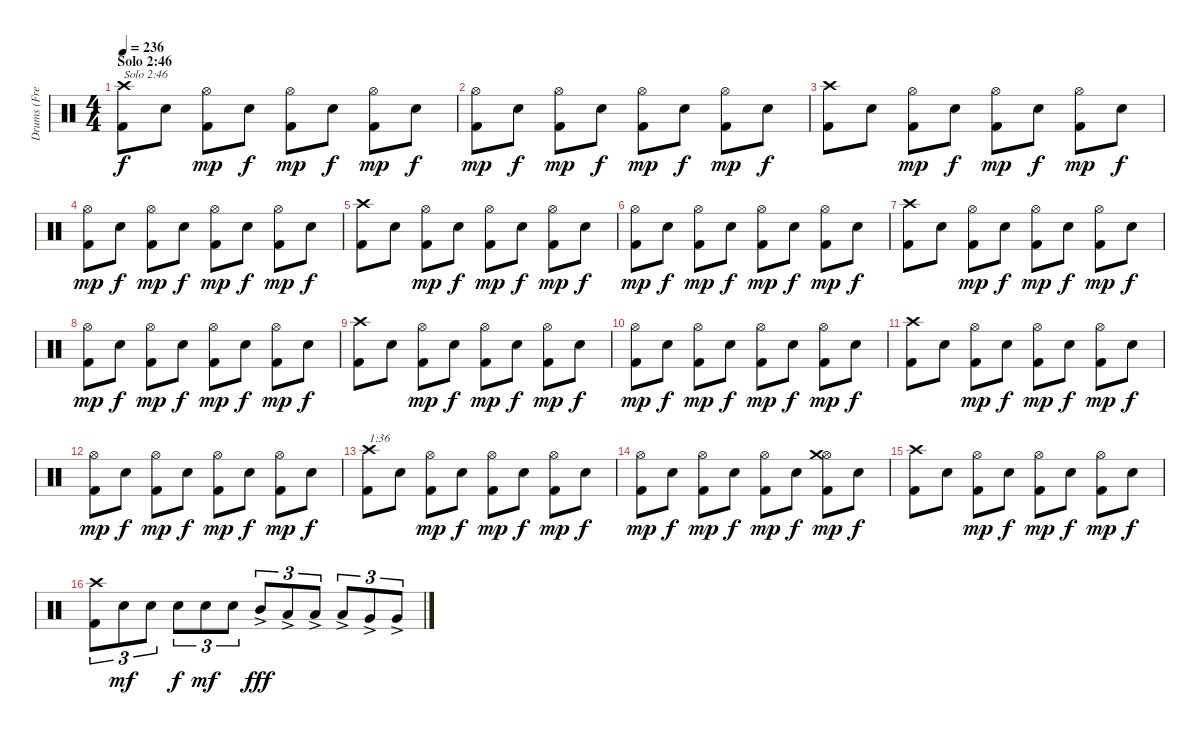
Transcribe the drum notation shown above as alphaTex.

\track ("Drums (Fred Estby)" "Drums (Fre") {instrument percussion}
\staff {score}
\articulation defaults
\ts (4 4)
\section ("" "Solo 2:46")
\tempo 236
\clef neutral
\ks c
("Kick (hit) 2" "Crash high (hit)").8{txt "Solo 2:46" dy f} "Electric Snare (hit)".8 ("Kick (hit) 2" "Hi-Hat (open)").8{dy mp} "Electric Snare (hit)".8{dy f} ("Kick (hit) 2" "Hi-Hat (open)").8{dy mp} "Electric Snare (hit)".8{dy f} ("Kick (hit) 2" "Hi-Hat (open)").8{dy mp} "Electric Snare (hit)".8{dy f} |
("Kick (hit) 2" "Hi-Hat (open)").8{dy mp} "Electric Snare (hit)".8{dy f} ("Kick (hit) 2" "Hi-Hat (open)").8{dy mp} "Electric Snare (hit)".8{dy f} ("Kick (hit) 2" "Hi-Hat (open)").8{dy mp} "Electric Snare (hit)".8{dy f} ("Kick (hit) 2" "Hi-Hat (open)").8{dy mp} "Electric Snare (hit)".8{dy f} |
("Kick (hit) 2" "Crash high (hit)").8 "Electric Snare (hit)".8 ("Kick (hit) 2" "Hi-Hat (open)").8{dy mp} "Electric Snare (hit)".8{dy f} ("Kick (hit) 2" "Hi-Hat (open)").8{dy mp} "Electric Snare (hit)".8{dy f} ("Kick (hit) 2" "Hi-Hat (open)").8{dy mp} "Electric Snare (hit)".8{dy f} |
("Kick (hit) 2" "Hi-Hat (open)").8{dy mp} "Electric Snare (hit)".8{dy f} ("Kick (hit) 2" "Hi-Hat (open)").8{dy mp} "Electric Snare (hit)".8{dy f} ("Kick (hit) 2" "Hi-Hat (open)").8{dy mp} "Electric Snare (hit)".8{dy f} ("Kick (hit) 2" "Hi-Hat (open)").8{dy mp} "Electric Snare (hit)".8{dy f} |
("Kick (hit) 2" "Crash high (hit)").8 "Electric Snare (hit)".8 ("Kick (hit) 2" "Hi-Hat (open)").8{dy mp} "Electric Snare (hit)".8{dy f} ("Kick (hit) 2" "Hi-Hat (open)").8{dy mp} "Electric Snare (hit)".8{dy f} ("Kick (hit) 2" "Hi-Hat (open)").8{dy mp} "Electric Snare (hit)".8{dy f} |
("Kick (hit) 2" "Hi-Hat (open)").8{dy mp} "Electric Snare (hit)".8{dy f} ("Kick (hit) 2" "Hi-Hat (open)").8{dy mp} "Electric Snare (hit)".8{dy f} ("Kick (hit) 2" "Hi-Hat (open)").8{dy mp} "Electric Snare (hit)".8{dy f} ("Kick (hit) 2" "Hi-Hat (open)").8{dy mp} "Electric Snare (hit)".8{dy f} |
("Kick (hit) 2" "Crash high (hit)").8 "Electric Snare (hit)".8 ("Kick (hit) 2" "Hi-Hat (open)").8{dy mp} "Electric Snare (hit)".8{dy f} ("Kick (hit) 2" "Hi-Hat (open)").8{dy mp} "Electric Snare (hit)".8{dy f} ("Kick (hit) 2" "Hi-Hat (open)").8{dy mp} "Electric Snare (hit)".8{dy f} |
("Kick (hit) 2" "Hi-Hat (open)").8{dy mp} "Electric Snare (hit)".8{dy f} ("Kick (hit) 2" "Hi-Hat (open)").8{dy mp} "Electric Snare (hit)".8{dy f} ("Kick (hit) 2" "Hi-Hat (open)").8{dy mp} "Electric Snare (hit)".8{dy f} ("Kick (hit) 2" "Hi-Hat (open)").8{dy mp} "Electric Snare (hit)".8{dy f} |
("Kick (hit) 2" "Crash high (hit)").8 "Electric Snare (hit)".8 ("Kick (hit) 2" "Hi-Hat (open)").8{dy mp} "Electric Snare (hit)".8{dy f} ("Kick (hit) 2" "Hi-Hat (open)").8{dy mp} "Electric Snare (hit)".8{dy f} ("Kick (hit) 2" "Hi-Hat (open)").8{dy mp} "Electric Snare (hit)".8{dy f} |
("Kick (hit) 2" "Hi-Hat (open)").8{dy mp} "Electric Snare (hit)".8{dy f} ("Kick (hit) 2" "Hi-Hat (open)").8{dy mp} "Electric Snare (hit)".8{dy f} ("Kick (hit) 2" "Hi-Hat (open)").8{dy mp} "Electric Snare (hit)".8{dy f} ("Kick (hit) 2" "Hi-Hat (open)").8{dy mp} "Electric Snare (hit)".8{dy f} |
("Kick (hit) 2" "Crash high (hit)").8 "Electric Snare (hit)".8 ("Kick (hit) 2" "Hi-Hat (open)").8{dy mp} "Electric Snare (hit)".8{dy f} ("Kick (hit) 2" "Hi-Hat (open)").8{dy mp} "Electric Snare (hit)".8{dy f} ("Kick (hit) 2" "Hi-Hat (open)").8{dy mp} "Electric Snare (hit)".8{dy f} |
("Kick (hit) 2" "Hi-Hat (open)").8{dy mp} "Electric Snare (hit)".8{dy f} ("Kick (hit) 2" "Hi-Hat (open)").8{dy mp} "Electric Snare (hit)".8{dy f} ("Kick (hit) 2" "Hi-Hat (open)").8{dy mp} "Electric Snare (hit)".8{dy f} ("Kick (hit) 2" "Hi-Hat (open)").8{dy mp} "Electric Snare (hit)".8{dy f} |
("Kick (hit) 2" "Crash high (hit)").8{txt "1:36"} "Electric Snare (hit)".8 ("Kick (hit) 2" "Hi-Hat (open)").8{dy mp} "Electric Snare (hit)".8{dy f} ("Kick (hit) 2" "Hi-Hat (open)").8{dy mp} "Electric Snare (hit)".8{dy f} ("Kick (hit) 2" "Hi-Hat (open)").8{dy mp} "Electric Snare (hit)".8{dy f} |
("Kick (hit) 2" "Hi-Hat (open)").8{dy mp} "Electric Snare (hit)".8{dy f} ("Kick (hit) 2" "Hi-Hat (open)").8{dy mp} "Electric Snare (hit)".8{dy f} ("Kick (hit) 2" "Hi-Hat (open)").8{dy mp} "Electric Snare (hit)".8{dy f} ("Kick (hit) 2" "Hi-Hat (open)" "Crash medium (hit)").8{dy mp} "Electric Snare (hit)".8{dy f} |
("Kick (hit) 2" "Crash high (hit)").8 "Electric Snare (hit)".8 ("Kick (hit) 2" "Hi-Hat (open)").8{dy mp} "Electric Snare (hit)".8{dy f} ("Kick (hit) 2" "Hi-Hat (open)").8{dy mp} "Electric Snare (hit)".8{dy f} ("Kick (hit) 2" "Hi-Hat (open)").8{dy mp} "Electric Snare (hit)".8{dy f} |
("Kick (hit) 2" "Crash high (hit)").8{tu (3 2)} "Electric Snare (hit)".8{tu (3 2) dy mf} "Electric Snare (hit)".8{tu (3 2)} "Electric Snare (hit)".8{tu (3 2) dy f} "Electric Snare (hit)".8{tu (3 2) dy mf} "Electric Snare (hit)".8{tu (3 2)} "Mid Tom (hit)"{ac}.8{tu (3 2) dy fff} "Low Tom (hit)"{ac}.8{tu (3 2)} "Low Tom (hit)"{ac}.8{tu (3 2)} "Low Tom (hit)"{ac}.8{tu (3 2)} "Very Low Tom (hit)"{ac}.8{tu (3 2)} "Very Low Tom (hit)"{ac}.8{tu (3 2)}
